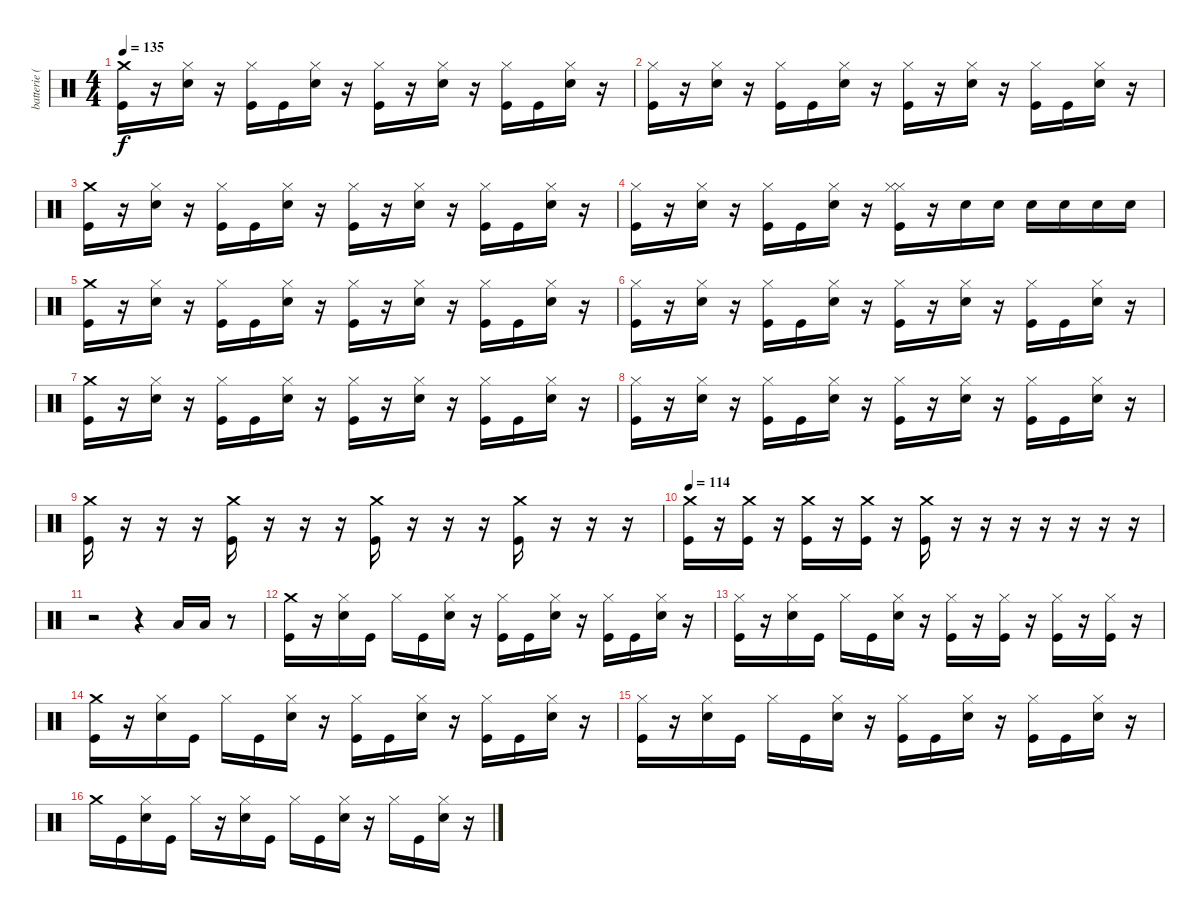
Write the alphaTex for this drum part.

\track ("batterie ( Mathieu )" "batterie (") {instrument percussion}
\staff {score}
\articulation defaults
\ts (4 4)
\tempo 135
\clef neutral
\ks c
("Crash medium (hit)" "Kick (hit)").16{dy f} r.16 ("Hi-Hat (closed)" "Snare (hit) 2").16 r.16 ("Hi-Hat (closed)" "Kick (hit)").16 "Kick (hit)".16 ("Hi-Hat (closed)" "Snare (hit) 2").16 r.16 ("Hi-Hat (closed)" "Kick (hit)").16 r.16 ("Hi-Hat (closed)" "Snare (hit) 2").16 r.16 ("Hi-Hat (closed)" "Kick (hit)").16 "Kick (hit)".16 ("Hi-Hat (closed)" "Snare (hit) 2").16 r.16 |
("Hi-Hat (closed)" "Kick (hit)").16 r.16 ("Hi-Hat (closed)" "Snare (hit) 2").16 r.16 ("Hi-Hat (closed)" "Kick (hit)").16 "Kick (hit)".16 ("Hi-Hat (closed)" "Snare (hit) 2").16 r.16 ("Hi-Hat (closed)" "Kick (hit)").16 r.16 ("Hi-Hat (closed)" "Snare (hit) 2").16 r.16 ("Hi-Hat (closed)" "Kick (hit)").16 "Kick (hit)".16 ("Hi-Hat (closed)" "Snare (hit) 2").16 r.16 |
("Crash medium (hit)" "Kick (hit)").16 r.16 ("Hi-Hat (closed)" "Snare (hit) 2").16 r.16 ("Hi-Hat (closed)" "Kick (hit)").16 "Kick (hit)".16 ("Hi-Hat (closed)" "Snare (hit) 2").16 r.16 ("Hi-Hat (closed)" "Kick (hit)").16 r.16 ("Hi-Hat (closed)" "Snare (hit) 2").16 r.16 ("Hi-Hat (closed)" "Kick (hit)").16 "Kick (hit)".16 ("Hi-Hat (closed)" "Snare (hit) 2").16 r.16 |
("Hi-Hat (closed)" "Kick (hit)").16 r.16 ("Hi-Hat (closed)" "Snare (hit) 2").16 r.16 ("Hi-Hat (closed)" "Kick (hit)").16 "Kick (hit)".16 ("Hi-Hat (closed)" "Snare (hit) 2").16 r.16 ("Hi-Hat (closed)" "Hi-Hat (closed)" "Kick (hit)").16 r.16 "Snare (hit) 2".16 "Snare (hit) 2".16 "Snare (hit) 2".16 "Snare (hit) 2".16 "Snare (hit) 2".16 "Snare (hit) 2".16 |
("Crash medium (hit)" "Kick (hit)").16 r.16 ("Hi-Hat (closed)" "Snare (hit) 2").16 r.16 ("Hi-Hat (closed)" "Kick (hit)").16 "Kick (hit)".16 ("Hi-Hat (closed)" "Snare (hit) 2").16 r.16 ("Hi-Hat (closed)" "Kick (hit)").16 r.16 ("Hi-Hat (closed)" "Snare (hit) 2").16 r.16 ("Hi-Hat (closed)" "Kick (hit)").16 "Kick (hit)".16 ("Hi-Hat (closed)" "Snare (hit) 2").16 r.16 |
("Hi-Hat (closed)" "Kick (hit)").16 r.16 ("Hi-Hat (closed)" "Snare (hit) 2").16 r.16 ("Hi-Hat (closed)" "Kick (hit)").16 "Kick (hit)".16 ("Hi-Hat (closed)" "Snare (hit) 2").16 r.16 ("Hi-Hat (closed)" "Kick (hit)").16 r.16 ("Hi-Hat (closed)" "Snare (hit) 2").16 r.16 ("Hi-Hat (closed)" "Kick (hit)").16 "Kick (hit)".16 ("Hi-Hat (closed)" "Snare (hit) 2").16 r.16 |
("Crash medium (hit)" "Kick (hit)").16 r.16 ("Hi-Hat (closed)" "Snare (hit) 2").16 r.16 ("Hi-Hat (closed)" "Kick (hit)").16 "Kick (hit)".16 ("Hi-Hat (closed)" "Snare (hit) 2").16 r.16 ("Hi-Hat (closed)" "Kick (hit)").16 r.16 ("Hi-Hat (closed)" "Snare (hit) 2").16 r.16 ("Hi-Hat (closed)" "Kick (hit)").16 "Kick (hit)".16 ("Hi-Hat (closed)" "Snare (hit) 2").16 r.16 |
("Hi-Hat (closed)" "Kick (hit)").16 r.16 ("Hi-Hat (closed)" "Snare (hit) 2").16 r.16 ("Hi-Hat (closed)" "Kick (hit)").16 "Kick (hit)".16 ("Hi-Hat (closed)" "Snare (hit) 2").16 r.16 ("Hi-Hat (closed)" "Kick (hit)").16 r.16 ("Hi-Hat (closed)" "Snare (hit) 2").16 r.16 ("Hi-Hat (closed)" "Kick (hit)").16 "Kick (hit)".16 ("Hi-Hat (closed)" "Snare (hit) 2").16 r.16 |
("Crash medium (hit)" "Kick (hit)").16 r.16 r.16 r.16 ("Crash medium (hit)" "Kick (hit)").16 r.16 r.16 r.16 ("Crash medium (hit)" "Kick (hit)").16 r.16 r.16 r.16 ("Crash medium (hit)" "Kick (hit)").16 r.16 r.16 r.16 |
\tempo 114
("Crash medium (hit)" "Kick (hit)").16 r.16 ("Crash medium (hit)" "Kick (hit)").16 r.16 ("Crash medium (hit)" "Kick (hit)").16 r.16 ("Crash medium (hit)" "Kick (hit)").16 r.16 ("Crash medium (hit)" "Kick (hit)").16 r.16 r.16 r.16 r.16 r.16 r.16 r.16 |
r.2 r.4 "Low Floor Tom (hit)".16 "Low Floor Tom (hit)".16 r.8 |
("Crash medium (hit)" "Kick (hit)").16 r.16 ("Hi-Hat (closed)" "Snare (hit) 2").16 "Kick (hit)".16 "Hi-Hat (closed)".16 "Kick (hit)".16 ("Hi-Hat (closed)" "Snare (hit) 2").16 r.16 ("Hi-Hat (closed)" "Kick (hit)").16 "Kick (hit)".16 ("Hi-Hat (closed)" "Snare (hit) 2").16 r.16 ("Hi-Hat (closed)" "Kick (hit)").16 "Kick (hit)".16 ("Hi-Hat (closed)" "Snare (hit) 2").16 r.16 |
("Hi-Hat (closed)" "Kick (hit)").16 r.16 ("Hi-Hat (closed)" "Snare (hit) 2").16 "Kick (hit)".16 "Hi-Hat (closed)".16 "Kick (hit)".16 ("Hi-Hat (closed)" "Snare (hit) 2").16 r.16 ("Hi-Hat (closed)" "Kick (hit)").16 r.16 ("Hi-Hat (closed)" "Kick (hit)").16 r.16 ("Hi-Hat (closed)" "Kick (hit)").16 r.16 ("Hi-Hat (closed)" "Kick (hit)").16 r.16 |
("Crash medium (hit)" "Kick (hit)").16 r.16 ("Hi-Hat (closed)" "Snare (hit) 2").16 "Kick (hit)".16 "Hi-Hat (closed)".16 "Kick (hit)".16 ("Hi-Hat (closed)" "Snare (hit) 2").16 r.16 ("Hi-Hat (closed)" "Kick (hit)").16 "Kick (hit)".16 ("Hi-Hat (closed)" "Snare (hit) 2").16 r.16 ("Hi-Hat (closed)" "Kick (hit)").16 "Kick (hit)".16 ("Hi-Hat (closed)" "Snare (hit) 2").16 r.16 |
("Hi-Hat (closed)" "Kick (hit)").16 r.16 ("Hi-Hat (closed)" "Snare (hit) 2").16 "Kick (hit)".16 "Hi-Hat (closed)".16 "Kick (hit)".16 ("Hi-Hat (closed)" "Snare (hit) 2").16 r.16 ("Hi-Hat (closed)" "Kick (hit)").16 "Kick (hit)".16 ("Hi-Hat (closed)" "Snare (hit) 2").16 r.16 ("Hi-Hat (closed)" "Kick (hit)").16 "Kick (hit)".16 ("Hi-Hat (closed)" "Snare (hit) 2").16 r.16 |
"Crash medium (hit)".16 "Kick (hit)".16 ("Hi-Hat (closed)" "Snare (hit) 2").16 "Kick (hit)".16 "Hi-Hat (closed)".16 r.16 ("Hi-Hat (closed)" "Snare (hit) 2").16 "Kick (hit)".16 "Hi-Hat (closed)".16 "Kick (hit)".16 ("Hi-Hat (closed)" "Snare (hit) 2").16 r.16 "Hi-Hat (closed)".16 "Kick (hit)".16 ("Hi-Hat (closed)" "Snare (hit) 2").16 r.16
